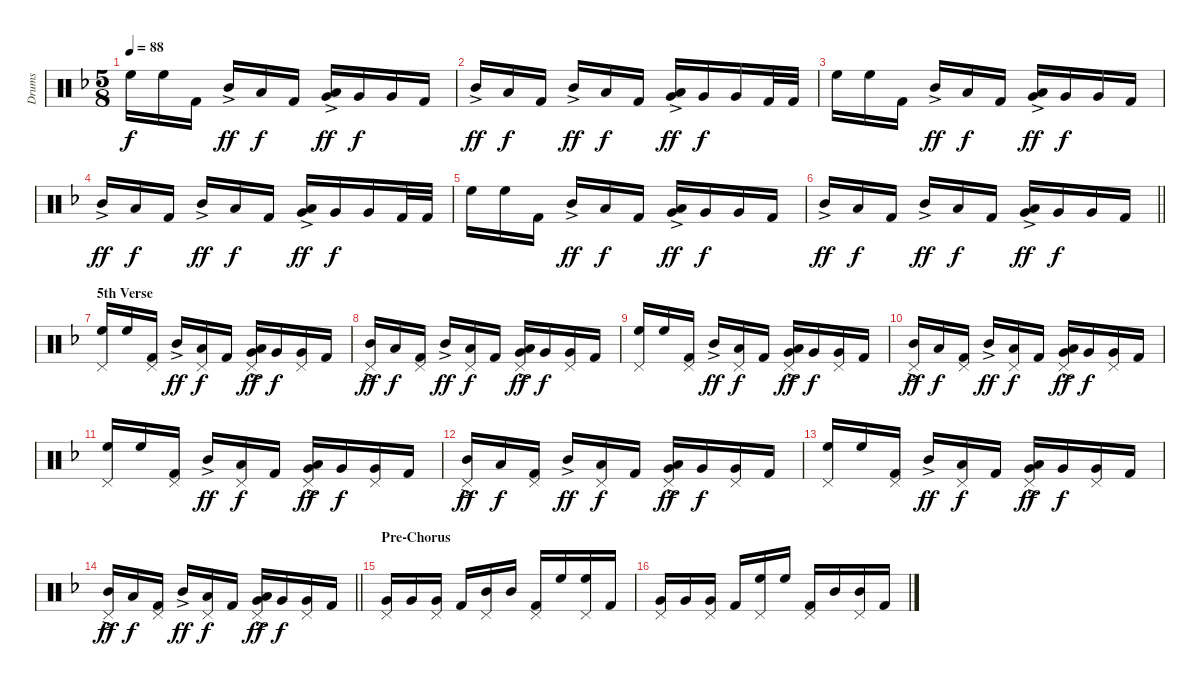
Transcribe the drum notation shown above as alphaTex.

\track ("Drums" "Drums") {instrument percussion}
\staff {score}
\articulation defaults
\ts (5 8)
\tempo 88
\clef neutral
\ks dminor "High Floor Tom (hit)".16{dy f} "High Floor Tom (hit)".16{beam merge} "Kick (hit) 2".16{beam split} "Mid Tom (hit)"{ac}.16{dy ff beam merge} "Low Tom (hit)".16{dy f} "Kick (hit) 2".16{beam split}
("Low Tom (hit)"{ac} "Very Low Tom (hit)").16{dy ff} "Very Low Tom (hit)".16{dy f beam merge} "Very Low Tom (hit)".16 "Kick (hit) 2".16 |
"Mid Tom (hit)"{ac}.16{dy ff} "Low Tom (hit)".16{dy f beam merge} "Kick (hit) 2".16{beam split} "Mid Tom (hit)"{ac}.16{dy ff beam merge} "Low Tom (hit)".16{dy f} "Kick (hit) 2".16{beam split} ("Low Tom (hit)"{ac} "Very Low Tom (hit)").16{dy ff} "Very Low Tom (hit)".16{dy f beam merge} "Very Low Tom (hit)".16 "Kick (hit) 2".32 "Kick (hit) 2".32 |
"High Floor Tom (hit)".16 "High Floor Tom (hit)".16{beam merge} "Kick (hit) 2".16{beam split} "Mid Tom (hit)"{ac}.16{dy ff beam merge} "Low Tom (hit)".16{dy f} "Kick (hit) 2".16{beam split} ("Low Tom (hit)"{ac} "Very Low Tom (hit)").16{dy ff} "Very Low Tom (hit)".16{dy f beam merge} "Very Low Tom (hit)".16 "Kick (hit) 2".16 |
"Mid Tom (hit)"{ac}.16{dy ff} "Low Tom (hit)".16{dy f beam merge} "Kick (hit) 2".16{beam split} "Mid Tom (hit)"{ac}.16{dy ff beam merge} "Low Tom (hit)".16{dy f} "Kick (hit) 2".16{beam split} ("Low Tom (hit)"{ac} "Very Low Tom (hit)").16{dy ff} "Very Low Tom (hit)".16{dy f beam merge} "Very Low Tom (hit)".16 "Kick (hit) 2".32 "Kick (hit) 2".32 |
"High Floor Tom (hit)".16 "High Floor Tom (hit)".16{beam merge} "Kick (hit) 2".16{beam split} "Mid Tom (hit)"{ac}.16{dy ff beam merge} "Low Tom (hit)".16{dy f} "Kick (hit) 2".16{beam split} ("Low Tom (hit)"{ac} "Very Low Tom (hit)").16{dy ff} "Very Low Tom (hit)".16{dy f beam merge} "Very Low Tom (hit)".16 "Kick (hit) 2".16 |
\barLineRight lightlight "Mid Tom (hit)"{ac}.16{dy ff} "Low Tom (hit)".16{dy f beam merge} "Kick (hit) 2".16{beam split} "Mid Tom (hit)"{ac}.16{dy ff beam merge} "Low Tom (hit)".16{dy f} "Kick (hit) 2".16{beam split}
("Low Tom (hit)"{ac} "Very Low Tom (hit)").16{dy ff} "Very Low Tom (hit)".16{dy f beam merge} "Very Low Tom (hit)".16 "Kick (hit) 2".16 |
\section ("" "5th Verse")
("Pedal Hi-Hat (hit)" "High Floor Tom (hit)").16 "High Floor Tom (hit)".16{beam merge} ("Pedal Hi-Hat (hit)" "Kick (hit) 2").16{beam split} "Mid Tom (hit)"{ac}.16{dy ff beam merge} ("Pedal Hi-Hat (hit)" "Low Tom (hit)").16{dy f} "Kick (hit) 2".16{beam split} ("Pedal Hi-Hat (hit)" "Low Tom (hit)"{ac} "Very Low Tom (hit)").16{dy ff} "Very Low Tom (hit)".16{dy f beam merge} ("Pedal Hi-Hat (hit)" "Very Low Tom (hit)").16 "Kick (hit) 2".16 |
("Pedal Hi-Hat (hit)" "Mid Tom (hit)"{ac}).16{dy ff} "Low Tom (hit)".16{dy f beam merge} ("Pedal Hi-Hat (hit)" "Kick (hit) 2").16{beam split} "Mid Tom (hit)"{ac}.16{dy ff beam merge} ("Pedal Hi-Hat (hit)" "Low Tom (hit)").16{dy f} "Kick (hit) 2".16{beam split} ("Pedal Hi-Hat (hit)" "Low Tom (hit)"{ac} "Very Low Tom (hit)").16{dy ff} "Very Low Tom (hit)".16{dy f beam merge} ("Pedal Hi-Hat (hit)" "Very Low Tom (hit)").16 "Kick (hit) 2".16 |
("Pedal Hi-Hat (hit)" "High Floor Tom (hit)").16 "High Floor Tom (hit)".16{beam merge} ("Pedal Hi-Hat (hit)" "Kick (hit) 2").16{beam split} "Mid Tom (hit)"{ac}.16{dy ff beam merge} ("Pedal Hi-Hat (hit)" "Low Tom (hit)").16{dy f} "Kick (hit) 2".16{beam split} ("Pedal Hi-Hat (hit)" "Low Tom (hit)"{ac} "Very Low Tom (hit)").16{dy ff} "Very Low Tom (hit)".16{dy f beam merge} ("Pedal Hi-Hat (hit)" "Very Low Tom (hit)").16 "Kick (hit) 2".16 |
("Pedal Hi-Hat (hit)" "Mid Tom (hit)"{ac}).16{dy ff} "Low Tom (hit)".16{dy f beam merge} ("Pedal Hi-Hat (hit)" "Kick (hit) 2").16{beam split} "Mid Tom (hit)"{ac}.16{dy ff beam merge} ("Pedal Hi-Hat (hit)" "Low Tom (hit)").16{dy f} "Kick (hit) 2".16{beam split} ("Pedal Hi-Hat (hit)" "Low Tom (hit)"{ac} "Very Low Tom (hit)").16{dy ff} "Very Low Tom (hit)".16{dy f beam merge} ("Pedal Hi-Hat (hit)" "Very Low Tom (hit)").16 "Kick (hit) 2".16 |
("Pedal Hi-Hat (hit)" "High Floor Tom (hit)").16 "High Floor Tom (hit)".16{beam merge} ("Pedal Hi-Hat (hit)" "Kick (hit) 2").16{beam split} "Mid Tom (hit)"{ac}.16{dy ff beam merge} ("Pedal Hi-Hat (hit)" "Low Tom (hit)").16{dy f} "Kick (hit) 2".16{beam split} ("Pedal Hi-Hat (hit)" "Low Tom (hit)"{ac} "Very Low Tom (hit)").16{dy ff} "Very Low Tom (hit)".16{dy f beam merge} ("Pedal Hi-Hat (hit)" "Very Low Tom (hit)").16 "Kick (hit) 2".16 |
("Pedal Hi-Hat (hit)" "Mid Tom (hit)"{ac}).16{dy ff} "Low Tom (hit)".16{dy f beam merge} ("Pedal Hi-Hat (hit)" "Kick (hit) 2").16{beam split} "Mid Tom (hit)"{ac}.16{dy ff beam merge} ("Pedal Hi-Hat (hit)" "Low Tom (hit)").16{dy f} "Kick (hit) 2".16{beam split} ("Pedal Hi-Hat (hit)" "Low Tom (hit)"{ac} "Very Low Tom (hit)").16{dy ff} "Very Low Tom (hit)".16{dy f beam merge} ("Pedal Hi-Hat (hit)" "Very Low Tom (hit)").16 "Kick (hit) 2".16 |
("Pedal Hi-Hat (hit)" "High Floor Tom (hit)").16 "High Floor Tom (hit)".16{beam merge} ("Pedal Hi-Hat (hit)" "Kick (hit) 2").16{beam split} "Mid Tom (hit)"{ac}.16{dy ff beam merge} ("Pedal Hi-Hat (hit)" "Low Tom (hit)").16{dy f} "Kick (hit) 2".16{beam split} ("Pedal Hi-Hat (hit)" "Low Tom (hit)"{ac} "Very Low Tom (hit)").16{dy ff} "Very Low Tom (hit)".16{dy f beam merge} ("Pedal Hi-Hat (hit)" "Very Low Tom (hit)").16 "Kick (hit) 2".16 |
\barLineRight lightlight
("Pedal Hi-Hat (hit)" "Mid Tom (hit)"{ac}).16{dy ff} "Low Tom (hit)".16{dy f beam merge} ("Pedal Hi-Hat (hit)" "Kick (hit) 2").16{beam split} "Mid Tom (hit)"{ac}.16{dy ff beam merge} ("Pedal Hi-Hat (hit)" "Low Tom (hit)").16{dy f} "Kick (hit) 2".16{beam split} ("Pedal Hi-Hat (hit)" "Low Tom (hit)"{ac} "Very Low Tom (hit)").16{dy ff} "Very Low Tom (hit)".16{dy f beam merge} ("Pedal Hi-Hat (hit)" "Very Low Tom (hit)").16 "Kick (hit) 2".16 |
\section ("" "Pre-Chorus")
("Pedal Hi-Hat (hit)" "Very Low Tom (hit)").16 "Very Low Tom (hit)".16{beam merge} ("Pedal Hi-Hat (hit)" "Very Low Tom (hit)").16{beam split} "Kick (hit) 2".16{beam merge} ("Pedal Hi-Hat (hit)" "Mid Tom (hit)").16 "Mid Tom (hit)".16{beam split} ("Pedal Hi-Hat (hit)" "Kick (hit) 2").16 "High Floor Tom (hit)".16{beam merge} ("Pedal Hi-Hat (hit)" "High Floor Tom (hit)").16 "Kick (hit) 2".16 |
("Pedal Hi-Hat (hit)" "Very Low Tom (hit)").16 "Very Low Tom (hit)".16{beam merge} ("Pedal Hi-Hat (hit)" "Very Low Tom (hit)").16{beam split} "Kick (hit) 2".16{beam merge} ("Pedal Hi-Hat (hit)" "High Floor Tom (hit)").16 "High Floor Tom (hit)".16{beam split} ("Pedal Hi-Hat (hit)" "Kick (hit) 2").16{beam merge} "Mid Tom (hit)".16{beam merge} ("Pedal Hi-Hat (hit)" "Mid Tom (hit)").16 "Kick (hit) 2".16
